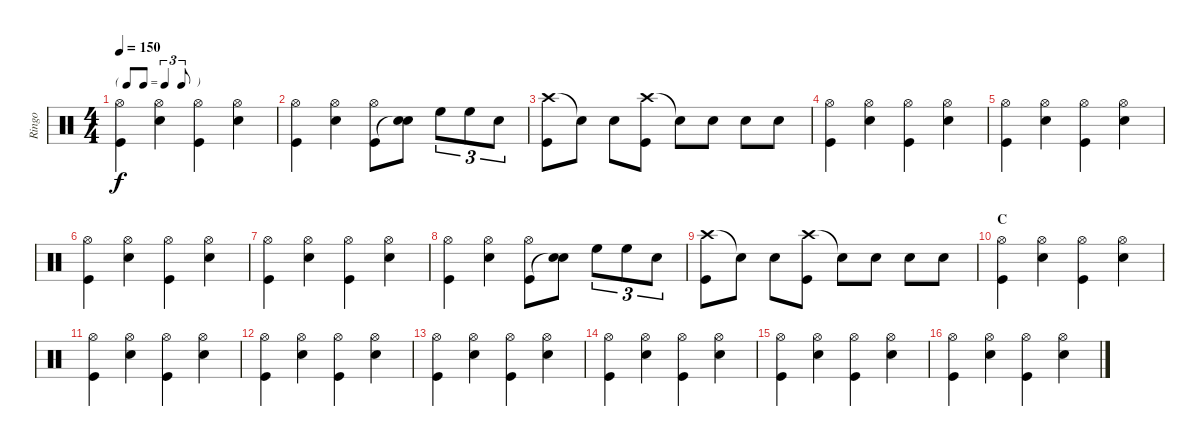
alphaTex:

\track ("Ringo" "Ringo") {instrument percussion}
\staff {score}
\articulation defaults
\ts (4 4)
\tf triplet8th
\tempo 150
\clef neutral
\ks c
("Hi-Hat (open)" "Kick (hit)").4{dy f} ("Hi-Hat (open)" "Snare (hit) 2").4 ("Hi-Hat (open)" "Kick (hit)").4 ("Hi-Hat (open)" "Snare (hit) 2").4 |
("Hi-Hat (open)" "Kick (hit)").4 ("Hi-Hat (open)" "Snare (hit) 2").4 ("Hi-Hat (open)" "Kick (hit)").8 ("Snare (hit) 2" "Snare (hit)"{t}).8 "High Floor Tom (hit)".8{tu (3 2)} "High Floor Tom (hit)".8{tu (3 2)} "Snare (hit) 2".8{tu (3 2)} |
("Crash high (hit)" "Kick (hit)").8 "Snare (hit)"{t}.8 "Snare (hit) 2".8 ("Crash high (hit)" "Kick (hit)").8 "Snare (hit)"{t}.8 "Snare (hit) 2".8 "Snare (hit) 2".8 "Snare (hit) 2".8 |
("Hi-Hat (open)" "Kick (hit)").4 ("Hi-Hat (open)" "Snare (hit) 2").4 ("Hi-Hat (open)" "Kick (hit)").4 ("Hi-Hat (open)" "Snare (hit) 2").4 |
("Hi-Hat (open)" "Kick (hit)").4 ("Hi-Hat (open)" "Snare (hit) 2").4 ("Hi-Hat (open)" "Kick (hit)").4 ("Hi-Hat (open)" "Snare (hit) 2").4 |
("Hi-Hat (open)" "Kick (hit)").4 ("Hi-Hat (open)" "Snare (hit) 2").4 ("Hi-Hat (open)" "Kick (hit)").4 ("Hi-Hat (open)" "Snare (hit) 2").4 |
("Hi-Hat (open)" "Kick (hit)").4 ("Hi-Hat (open)" "Snare (hit) 2").4 ("Hi-Hat (open)" "Kick (hit)").4 ("Hi-Hat (open)" "Snare (hit) 2").4 |
("Hi-Hat (open)" "Kick (hit)").4 ("Hi-Hat (open)" "Snare (hit) 2").4 ("Hi-Hat (open)" "Kick (hit)").8 ("Snare (hit) 2" "Snare (hit)"{t}).8 "High Floor Tom (hit)".8{tu (3 2)} "High Floor Tom (hit)".8{tu (3 2)} "Snare (hit) 2".8{tu (3 2)} |
("Crash high (hit)" "Kick (hit)").8 "Snare (hit)"{t}.8 "Snare (hit) 2".8 ("Crash high (hit)" "Kick (hit)").8 "Snare (hit)"{t}.8 "Snare (hit) 2".8 "Snare (hit) 2".8 "Snare (hit) 2".8 |
\section ("" "C")
("Hi-Hat (open)" "Kick (hit)").4 ("Hi-Hat (open)" "Snare (hit) 2").4 ("Hi-Hat (open)" "Kick (hit)").4 ("Hi-Hat (open)" "Snare (hit) 2").4 |
("Hi-Hat (open)" "Kick (hit)").4 ("Hi-Hat (open)" "Snare (hit) 2").4 ("Hi-Hat (open)" "Kick (hit)").4 ("Hi-Hat (open)" "Snare (hit) 2").4 |
("Hi-Hat (open)" "Kick (hit)").4 ("Hi-Hat (open)" "Snare (hit) 2").4 ("Hi-Hat (open)" "Kick (hit)").4 ("Hi-Hat (open)" "Snare (hit) 2").4 |
("Hi-Hat (open)" "Kick (hit)").4 ("Hi-Hat (open)" "Snare (hit) 2").4 ("Hi-Hat (open)" "Kick (hit)").4 ("Hi-Hat (open)" "Snare (hit) 2").4 |
("Hi-Hat (open)" "Kick (hit)").4 ("Hi-Hat (open)" "Snare (hit) 2").4 ("Hi-Hat (open)" "Kick (hit)").4 ("Hi-Hat (open)" "Snare (hit) 2").4 |
("Hi-Hat (open)" "Kick (hit)").4 ("Hi-Hat (open)" "Snare (hit) 2").4 ("Hi-Hat (open)" "Kick (hit)").4 ("Hi-Hat (open)" "Snare (hit) 2").4 |
("Hi-Hat (open)" "Kick (hit)").4 ("Hi-Hat (open)" "Snare (hit) 2").4 ("Hi-Hat (open)" "Kick (hit)").4 ("Hi-Hat (open)" "Snare (hit) 2").4
